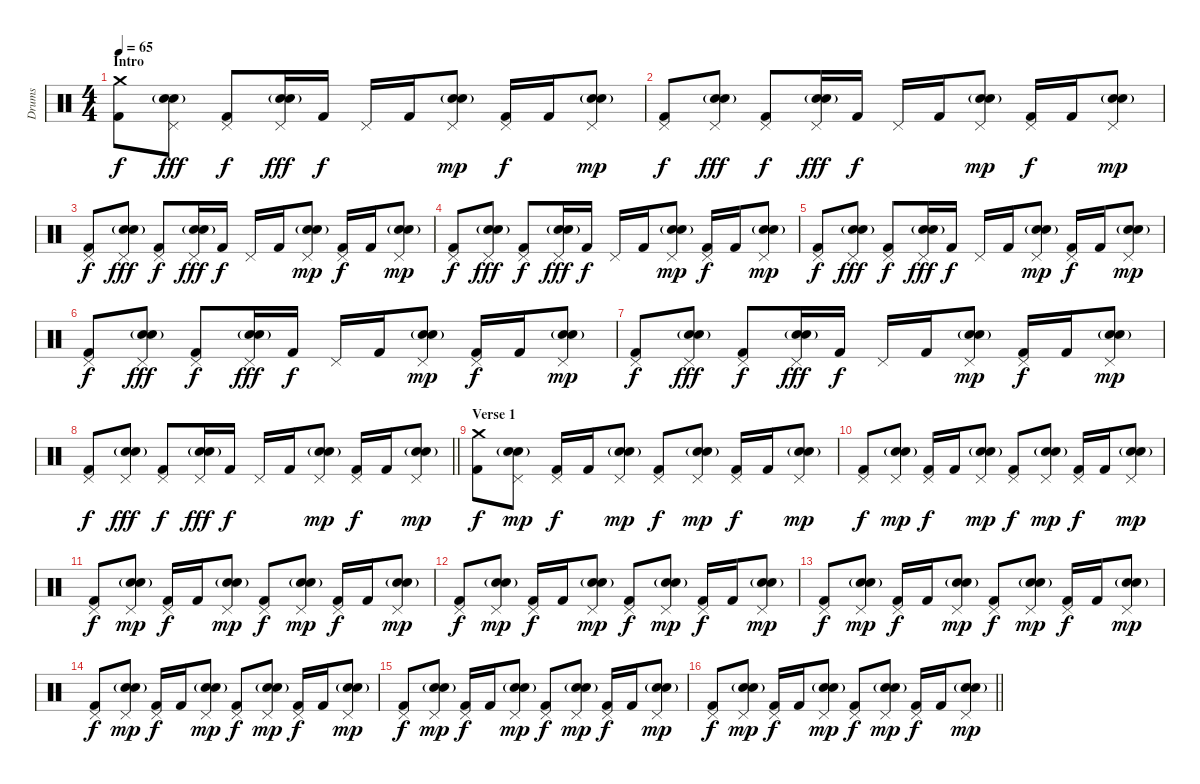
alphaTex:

\track ("Drums" "Drums") {instrument percussion}
\staff {score}
\articulation defaults
\ts (4 4)
\section ("" "Intro")
\tempo 65
\clef neutral
\ks c
("Crash medium (hit)" "Kick (hit) 2").8{dy f} ("Pedal Hi-Hat (hit)" "Snare (hit) 2"{g} "Electric Snare (hit)").8{dy fff} ("Pedal Hi-Hat (hit)" "Kick (hit) 2").8{dy f} ("Pedal Hi-Hat (hit)" "Snare (hit) 2"{g} "Electric Snare (hit)").16{dy fff} "Kick (hit) 2".16{dy f} "Pedal Hi-Hat (hit)".16 "Kick (hit) 2".16 ("Pedal Hi-Hat (hit)" "Snare (hit) 2"{g} "Electric Snare (hit)").8{dy mp} ("Pedal Hi-Hat (hit)" "Kick (hit) 2").16{dy f} "Kick (hit) 2".16 ("Pedal Hi-Hat (hit)" "Snare (hit) 2"{g} "Electric Snare (hit)").8{dy mp} |
("Pedal Hi-Hat (hit)" "Kick (hit) 2").8{dy f} ("Pedal Hi-Hat (hit)" "Snare (hit) 2"{g} "Electric Snare (hit)").8{dy fff} ("Pedal Hi-Hat (hit)" "Kick (hit) 2").8{dy f} ("Pedal Hi-Hat (hit)" "Snare (hit) 2"{g} "Electric Snare (hit)").16{dy fff} "Kick (hit) 2".16{dy f} "Pedal Hi-Hat (hit)".16 "Kick (hit) 2".16 ("Pedal Hi-Hat (hit)" "Snare (hit) 2"{g} "Electric Snare (hit)").8{dy mp} ("Pedal Hi-Hat (hit)" "Kick (hit) 2").16{dy f} "Kick (hit) 2".16 ("Pedal Hi-Hat (hit)" "Snare (hit) 2"{g} "Electric Snare (hit)").8{dy mp} |
("Pedal Hi-Hat (hit)" "Kick (hit) 2").8{dy f} ("Pedal Hi-Hat (hit)" "Snare (hit) 2"{g} "Electric Snare (hit)").8{dy fff} ("Pedal Hi-Hat (hit)" "Kick (hit) 2").8{dy f} ("Pedal Hi-Hat (hit)" "Snare (hit) 2"{g} "Electric Snare (hit)").16{dy fff} "Kick (hit) 2".16{dy f} "Pedal Hi-Hat (hit)".16 "Kick (hit) 2".16 ("Pedal Hi-Hat (hit)" "Snare (hit) 2"{g} "Electric Snare (hit)").8{dy mp} ("Pedal Hi-Hat (hit)" "Kick (hit) 2").16{dy f} "Kick (hit) 2".16 ("Pedal Hi-Hat (hit)" "Snare (hit) 2"{g} "Electric Snare (hit)").8{dy mp} |
("Pedal Hi-Hat (hit)" "Kick (hit) 2").8{dy f} ("Pedal Hi-Hat (hit)" "Snare (hit) 2"{g} "Electric Snare (hit)").8{dy fff} ("Pedal Hi-Hat (hit)" "Kick (hit) 2").8{dy f} ("Pedal Hi-Hat (hit)" "Snare (hit) 2"{g} "Electric Snare (hit)").16{dy fff} "Kick (hit) 2".16{dy f} "Pedal Hi-Hat (hit)".16 "Kick (hit) 2".16 ("Pedal Hi-Hat (hit)" "Snare (hit) 2"{g} "Electric Snare (hit)").8{dy mp} ("Pedal Hi-Hat (hit)" "Kick (hit) 2").16{dy f} "Kick (hit) 2".16 ("Pedal Hi-Hat (hit)" "Snare (hit) 2"{g} "Electric Snare (hit)").8{dy mp} |
("Pedal Hi-Hat (hit)" "Kick (hit) 2").8{dy f} ("Pedal Hi-Hat (hit)" "Snare (hit) 2"{g} "Electric Snare (hit)").8{dy fff} ("Pedal Hi-Hat (hit)" "Kick (hit) 2").8{dy f} ("Pedal Hi-Hat (hit)" "Snare (hit) 2"{g} "Electric Snare (hit)").16{dy fff} "Kick (hit) 2".16{dy f} "Pedal Hi-Hat (hit)".16 "Kick (hit) 2".16 ("Pedal Hi-Hat (hit)" "Snare (hit) 2"{g} "Electric Snare (hit)").8{dy mp} ("Pedal Hi-Hat (hit)" "Kick (hit) 2").16{dy f} "Kick (hit) 2".16 ("Pedal Hi-Hat (hit)" "Snare (hit) 2"{g} "Electric Snare (hit)").8{dy mp} |
("Pedal Hi-Hat (hit)" "Kick (hit) 2").8{dy f} ("Pedal Hi-Hat (hit)" "Snare (hit) 2"{g} "Electric Snare (hit)").8{dy fff} ("Pedal Hi-Hat (hit)" "Kick (hit) 2").8{dy f} ("Pedal Hi-Hat (hit)" "Snare (hit) 2"{g} "Electric Snare (hit)").16{dy fff} "Kick (hit) 2".16{dy f} "Pedal Hi-Hat (hit)".16 "Kick (hit) 2".16 ("Pedal Hi-Hat (hit)" "Snare (hit) 2"{g} "Electric Snare (hit)").8{dy mp} ("Pedal Hi-Hat (hit)" "Kick (hit) 2").16{dy f} "Kick (hit) 2".16 ("Pedal Hi-Hat (hit)" "Snare (hit) 2"{g} "Electric Snare (hit)").8{dy mp} |
("Pedal Hi-Hat (hit)" "Kick (hit) 2").8{dy f} ("Pedal Hi-Hat (hit)" "Snare (hit) 2"{g} "Electric Snare (hit)").8{dy fff} ("Pedal Hi-Hat (hit)" "Kick (hit) 2").8{dy f} ("Pedal Hi-Hat (hit)" "Snare (hit) 2"{g} "Electric Snare (hit)").16{dy fff} "Kick (hit) 2".16{dy f} "Pedal Hi-Hat (hit)".16 "Kick (hit) 2".16 ("Pedal Hi-Hat (hit)" "Snare (hit) 2"{g} "Electric Snare (hit)").8{dy mp} ("Pedal Hi-Hat (hit)" "Kick (hit) 2").16{dy f} "Kick (hit) 2".16 ("Pedal Hi-Hat (hit)" "Snare (hit) 2"{g} "Electric Snare (hit)").8{dy mp} |
\barLineRight lightlight
("Pedal Hi-Hat (hit)" "Kick (hit) 2").8{dy f} ("Pedal Hi-Hat (hit)" "Snare (hit) 2"{g} "Electric Snare (hit)").8{dy fff} ("Pedal Hi-Hat (hit)" "Kick (hit) 2").8{dy f} ("Pedal Hi-Hat (hit)" "Snare (hit) 2"{g} "Electric Snare (hit)").16{dy fff} "Kick (hit) 2".16{dy f} "Pedal Hi-Hat (hit)".16 "Kick (hit) 2".16 ("Pedal Hi-Hat (hit)" "Snare (hit) 2"{g} "Electric Snare (hit)").8{dy mp} ("Pedal Hi-Hat (hit)" "Kick (hit) 2").16{dy f} "Kick (hit) 2".16 ("Pedal Hi-Hat (hit)" "Snare (hit) 2"{g} "Electric Snare (hit)").8{dy mp} |
\section ("" "Verse 1")
("Crash medium (hit)" "Kick (hit) 2").8{dy f} ("Pedal Hi-Hat (hit)" "Snare (hit) 2"{g} "Electric Snare (hit)").8{dy mp} ("Pedal Hi-Hat (hit)" "Kick (hit) 2").16{dy f} "Kick (hit) 2".16 ("Pedal Hi-Hat (hit)" "Snare (hit) 2"{g} "Electric Snare (hit)").8{dy mp} ("Pedal Hi-Hat (hit)" "Kick (hit) 2").8{dy f} ("Pedal Hi-Hat (hit)" "Snare (hit) 2"{g} "Electric Snare (hit)").8{dy mp} ("Pedal Hi-Hat (hit)" "Kick (hit) 2").16{dy f} "Kick (hit) 2".16 ("Pedal Hi-Hat (hit)" "Snare (hit) 2"{g} "Electric Snare (hit)").8{dy mp} |
("Pedal Hi-Hat (hit)" "Kick (hit) 2").8{dy f} ("Pedal Hi-Hat (hit)" "Snare (hit) 2"{g} "Electric Snare (hit)").8{dy mp} ("Pedal Hi-Hat (hit)" "Kick (hit) 2").16{dy f} "Kick (hit) 2".16 ("Pedal Hi-Hat (hit)" "Snare (hit) 2"{g} "Electric Snare (hit)").8{dy mp} ("Pedal Hi-Hat (hit)" "Kick (hit) 2").8{dy f} ("Pedal Hi-Hat (hit)" "Snare (hit) 2"{g} "Electric Snare (hit)").8{dy mp} ("Pedal Hi-Hat (hit)" "Kick (hit) 2").16{dy f} "Kick (hit) 2".16 ("Pedal Hi-Hat (hit)" "Snare (hit) 2"{g} "Electric Snare (hit)").8{dy mp} |
("Pedal Hi-Hat (hit)" "Kick (hit) 2").8{dy f} ("Pedal Hi-Hat (hit)" "Snare (hit) 2"{g} "Electric Snare (hit)").8{dy mp} ("Pedal Hi-Hat (hit)" "Kick (hit) 2").16{dy f} "Kick (hit) 2".16 ("Pedal Hi-Hat (hit)" "Snare (hit) 2"{g} "Electric Snare (hit)").8{dy mp} ("Pedal Hi-Hat (hit)" "Kick (hit) 2").8{dy f} ("Pedal Hi-Hat (hit)" "Snare (hit) 2"{g} "Electric Snare (hit)").8{dy mp} ("Pedal Hi-Hat (hit)" "Kick (hit) 2").16{dy f} "Kick (hit) 2".16 ("Pedal Hi-Hat (hit)" "Snare (hit) 2"{g} "Electric Snare (hit)").8{dy mp} |
("Pedal Hi-Hat (hit)" "Kick (hit) 2").8{dy f} ("Pedal Hi-Hat (hit)" "Snare (hit) 2"{g} "Electric Snare (hit)").8{dy mp} ("Pedal Hi-Hat (hit)" "Kick (hit) 2").16{dy f} "Kick (hit) 2".16 ("Pedal Hi-Hat (hit)" "Snare (hit) 2"{g} "Electric Snare (hit)").8{dy mp} ("Pedal Hi-Hat (hit)" "Kick (hit) 2").8{dy f} ("Pedal Hi-Hat (hit)" "Snare (hit) 2"{g} "Electric Snare (hit)").8{dy mp} ("Pedal Hi-Hat (hit)" "Kick (hit) 2").16{dy f} "Kick (hit) 2".16 ("Pedal Hi-Hat (hit)" "Snare (hit) 2"{g} "Electric Snare (hit)").8{dy mp} |
("Pedal Hi-Hat (hit)" "Kick (hit) 2").8{dy f} ("Pedal Hi-Hat (hit)" "Snare (hit) 2"{g} "Electric Snare (hit)").8{dy mp} ("Pedal Hi-Hat (hit)" "Kick (hit) 2").16{dy f} "Kick (hit) 2".16 ("Pedal Hi-Hat (hit)" "Snare (hit) 2"{g} "Electric Snare (hit)").8{dy mp} ("Pedal Hi-Hat (hit)" "Kick (hit) 2").8{dy f} ("Pedal Hi-Hat (hit)" "Snare (hit) 2"{g} "Electric Snare (hit)").8{dy mp} ("Pedal Hi-Hat (hit)" "Kick (hit) 2").16{dy f} "Kick (hit) 2".16 ("Pedal Hi-Hat (hit)" "Snare (hit) 2"{g} "Electric Snare (hit)").8{dy mp} |
("Pedal Hi-Hat (hit)" "Kick (hit) 2").8{dy f} ("Pedal Hi-Hat (hit)" "Snare (hit) 2"{g} "Electric Snare (hit)").8{dy mp} ("Pedal Hi-Hat (hit)" "Kick (hit) 2").16{dy f} "Kick (hit) 2".16 ("Pedal Hi-Hat (hit)" "Snare (hit) 2"{g} "Electric Snare (hit)").8{dy mp} ("Pedal Hi-Hat (hit)" "Kick (hit) 2").8{dy f} ("Pedal Hi-Hat (hit)" "Snare (hit) 2"{g} "Electric Snare (hit)").8{dy mp} ("Pedal Hi-Hat (hit)" "Kick (hit) 2").16{dy f} "Kick (hit) 2".16 ("Pedal Hi-Hat (hit)" "Snare (hit) 2"{g} "Electric Snare (hit)").8{dy mp} |
("Pedal Hi-Hat (hit)" "Kick (hit) 2").8{dy f} ("Pedal Hi-Hat (hit)" "Snare (hit) 2"{g} "Electric Snare (hit)").8{dy mp} ("Pedal Hi-Hat (hit)" "Kick (hit) 2").16{dy f} "Kick (hit) 2".16 ("Pedal Hi-Hat (hit)" "Snare (hit) 2"{g} "Electric Snare (hit)").8{dy mp} ("Pedal Hi-Hat (hit)" "Kick (hit) 2").8{dy f} ("Pedal Hi-Hat (hit)" "Snare (hit) 2"{g} "Electric Snare (hit)").8{dy mp} ("Pedal Hi-Hat (hit)" "Kick (hit) 2").16{dy f} "Kick (hit) 2".16 ("Pedal Hi-Hat (hit)" "Snare (hit) 2"{g} "Electric Snare (hit)").8{dy mp} |
\barLineRight lightlight
("Pedal Hi-Hat (hit)" "Kick (hit) 2").8{dy f} ("Pedal Hi-Hat (hit)" "Snare (hit) 2"{g} "Electric Snare (hit)").8{dy mp} ("Pedal Hi-Hat (hit)" "Kick (hit) 2").16{dy f} "Kick (hit) 2".16 ("Pedal Hi-Hat (hit)" "Snare (hit) 2"{g} "Electric Snare (hit)").8{dy mp} ("Pedal Hi-Hat (hit)" "Kick (hit) 2").8{dy f} ("Pedal Hi-Hat (hit)" "Snare (hit) 2"{g} "Electric Snare (hit)").8{dy mp} ("Pedal Hi-Hat (hit)" "Kick (hit) 2").16{dy f} "Kick (hit) 2".16 ("Pedal Hi-Hat (hit)" "Snare (hit) 2"{g} "Electric Snare (hit)").8{dy mp}
